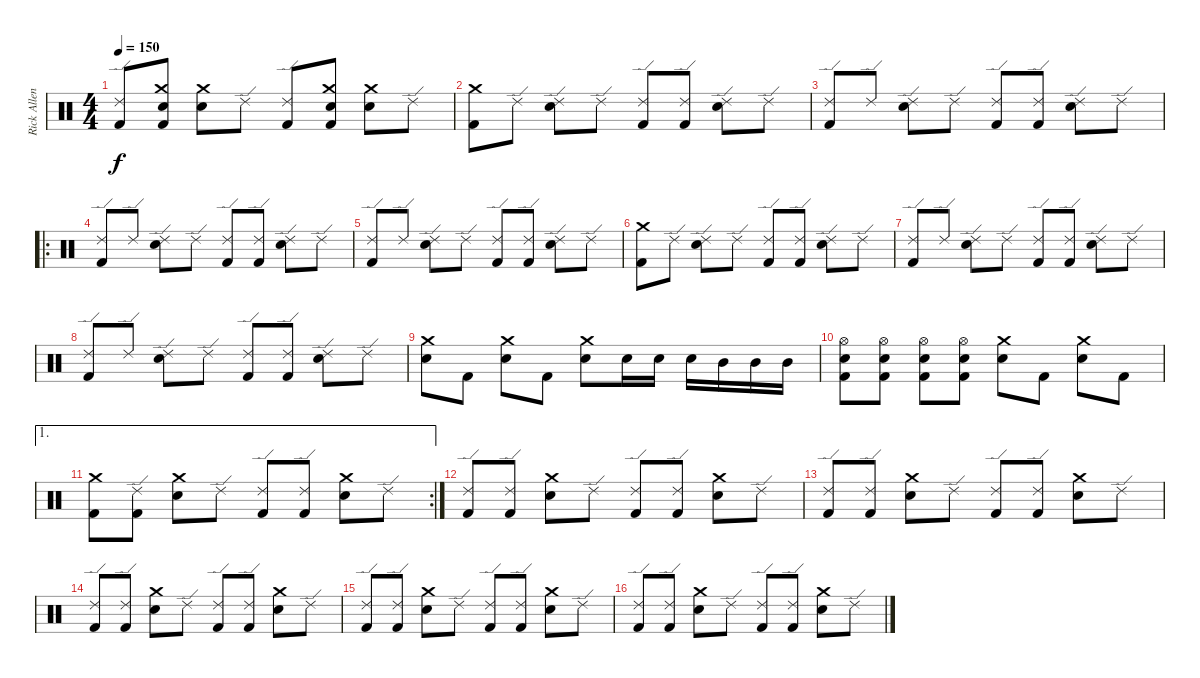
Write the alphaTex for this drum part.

\track ("Rick Allen" "Rick Allen") {instrument percussion}
\staff {score}
\articulation defaults
\ts (4 4)
\tempo 150
\clef neutral
\ks c
("Ride (edge) 2" "Kick (hit) 2").8{dy f} ("Crash medium (hit)" "Snare (hit) 2" "Kick (hit) 2").8 ("Crash medium (hit)" "Snare (hit) 2").8 "Ride (edge) 2".8 ("Ride (edge) 2" "Kick (hit) 2").8 ("Crash medium (hit)" "Snare (hit) 2" "Kick (hit) 2").8 ("Crash medium (hit)" "Snare (hit) 2").8 "Ride (edge) 2".8 |
("Crash medium (hit)" "Kick (hit) 2").8 "Ride (edge) 2".8 ("Ride (edge) 2" "Snare (hit) 2").8 "Ride (edge) 2".8 ("Ride (edge) 2" "Kick (hit) 2").8 ("Ride (edge) 2" "Kick (hit) 2").8 ("Ride (edge) 2" "Snare (hit) 2").8 "Ride (edge) 2".8 |
("Ride (edge) 2" "Kick (hit) 2").8 "Ride (edge) 2".8 ("Ride (edge) 2" "Snare (hit) 2").8 "Ride (edge) 2".8 ("Ride (edge) 2" "Kick (hit) 2").8 ("Ride (edge) 2" "Kick (hit) 2").8 ("Ride (edge) 2" "Snare (hit) 2").8 "Ride (edge) 2".8 |
\ro
("Ride (edge) 2" "Kick (hit) 2").8 "Ride (edge) 2".8 ("Ride (edge) 2" "Snare (hit) 2").8 "Ride (edge) 2".8 ("Ride (edge) 2" "Kick (hit) 2").8 ("Ride (edge) 2" "Kick (hit) 2").8 ("Ride (edge) 2" "Snare (hit) 2").8 "Ride (edge) 2".8 |
("Ride (edge) 2" "Kick (hit) 2").8 "Ride (edge) 2".8 ("Ride (edge) 2" "Snare (hit) 2").8 "Ride (edge) 2".8 ("Ride (edge) 2" "Kick (hit) 2").8 ("Ride (edge) 2" "Kick (hit) 2").8 ("Ride (edge) 2" "Snare (hit) 2").8 "Ride (edge) 2".8 |
("Crash medium (hit)" "Kick (hit) 2").8 "Ride (edge) 2".8 ("Ride (edge) 2" "Snare (hit) 2").8 "Ride (edge) 2".8 ("Ride (edge) 2" "Kick (hit) 2").8 ("Ride (edge) 2" "Kick (hit) 2").8 ("Ride (edge) 2" "Snare (hit) 2").8 "Ride (edge) 2".8 |
("Ride (edge) 2" "Kick (hit) 2").8 "Ride (edge) 2".8 ("Ride (edge) 2" "Snare (hit) 2").8 "Ride (edge) 2".8 ("Ride (edge) 2" "Kick (hit) 2").8 ("Ride (edge) 2" "Kick (hit) 2").8 ("Ride (edge) 2" "Snare (hit) 2").8 "Ride (edge) 2".8 |
("Ride (edge) 2" "Kick (hit) 2").8 "Ride (edge) 2".8 ("Ride (edge) 2" "Snare (hit) 2").8 "Ride (edge) 2".8 ("Ride (edge) 2" "Kick (hit) 2").8 ("Ride (edge) 2" "Kick (hit) 2").8 ("Ride (edge) 2" "Snare (hit) 2").8 "Ride (edge) 2".8 |
("Crash medium (hit)" "Snare (hit) 2").8 "Kick (hit) 2".8 ("Crash medium (hit)" "Snare (hit) 2").8 "Kick (hit) 2".8 ("Crash medium (hit)" "Snare (hit) 2").8 "Snare (hit) 2".16 "Snare (hit) 2".16 "Snare (hit) 2".16 "Mid Tom (hit)".16 "Mid Tom (hit)".16 "Mid Tom (hit)".16 |
("Hi-Hat (open)" "Snare (hit) 2" "Kick (hit) 2").8 ("Hi-Hat (open)" "Snare (hit) 2" "Kick (hit) 2").8 ("Hi-Hat (open)" "Snare (hit) 2" "Kick (hit) 2").8 ("Hi-Hat (open)" "Snare (hit) 2" "Kick (hit) 2").8 ("Crash medium (hit)" "Snare (hit) 2").8 "Kick (hit) 2".8 ("Crash medium (hit)" "Snare (hit) 2").8 "Kick (hit) 2".8 |
\ae 1
\rc 2
("Crash medium (hit)" "Kick (hit) 2").8 ("Ride (edge) 2" "Kick (hit) 2").8 ("Crash medium (hit)" "Snare (hit) 2").8 "Ride (edge) 2".8 ("Ride (edge) 2" "Kick (hit) 2").8 ("Ride (edge) 2" "Kick (hit) 2").8 ("Crash medium (hit)" "Snare (hit) 2").8 "Ride (edge) 2".8 |
("Ride (edge) 2" "Kick (hit) 2").8 ("Ride (edge) 2" "Kick (hit) 2").8 ("Crash medium (hit)" "Snare (hit) 2").8 "Ride (edge) 2".8 ("Ride (edge) 2" "Kick (hit) 2").8 ("Ride (edge) 2" "Kick (hit) 2").8 ("Crash medium (hit)" "Snare (hit) 2").8 "Ride (edge) 2".8 |
("Ride (edge) 2" "Kick (hit) 2").8 ("Ride (edge) 2" "Kick (hit) 2").8 ("Crash medium (hit)" "Snare (hit) 2").8 "Ride (edge) 2".8 ("Ride (edge) 2" "Kick (hit) 2").8 ("Ride (edge) 2" "Kick (hit) 2").8 ("Crash medium (hit)" "Snare (hit) 2").8 "Ride (edge) 2".8 |
("Ride (edge) 2" "Kick (hit) 2").8 ("Ride (edge) 2" "Kick (hit) 2").8 ("Crash medium (hit)" "Snare (hit) 2").8 "Ride (edge) 2".8 ("Ride (edge) 2" "Kick (hit) 2").8 ("Ride (edge) 2" "Kick (hit) 2").8 ("Crash medium (hit)" "Snare (hit) 2").8 "Ride (edge) 2".8 |
("Ride (edge) 2" "Kick (hit) 2").8 ("Ride (edge) 2" "Kick (hit) 2").8 ("Crash medium (hit)" "Snare (hit) 2").8 "Ride (edge) 2".8 ("Ride (edge) 2" "Kick (hit) 2").8 ("Ride (edge) 2" "Kick (hit) 2").8 ("Crash medium (hit)" "Snare (hit) 2").8 "Ride (edge) 2".8 |
("Ride (edge) 2" "Kick (hit) 2").8 ("Ride (edge) 2" "Kick (hit) 2").8 ("Crash medium (hit)" "Snare (hit) 2").8 "Ride (edge) 2".8 ("Ride (edge) 2" "Kick (hit) 2").8 ("Ride (edge) 2" "Kick (hit) 2").8 ("Crash medium (hit)" "Snare (hit) 2").8 "Ride (edge) 2".8
